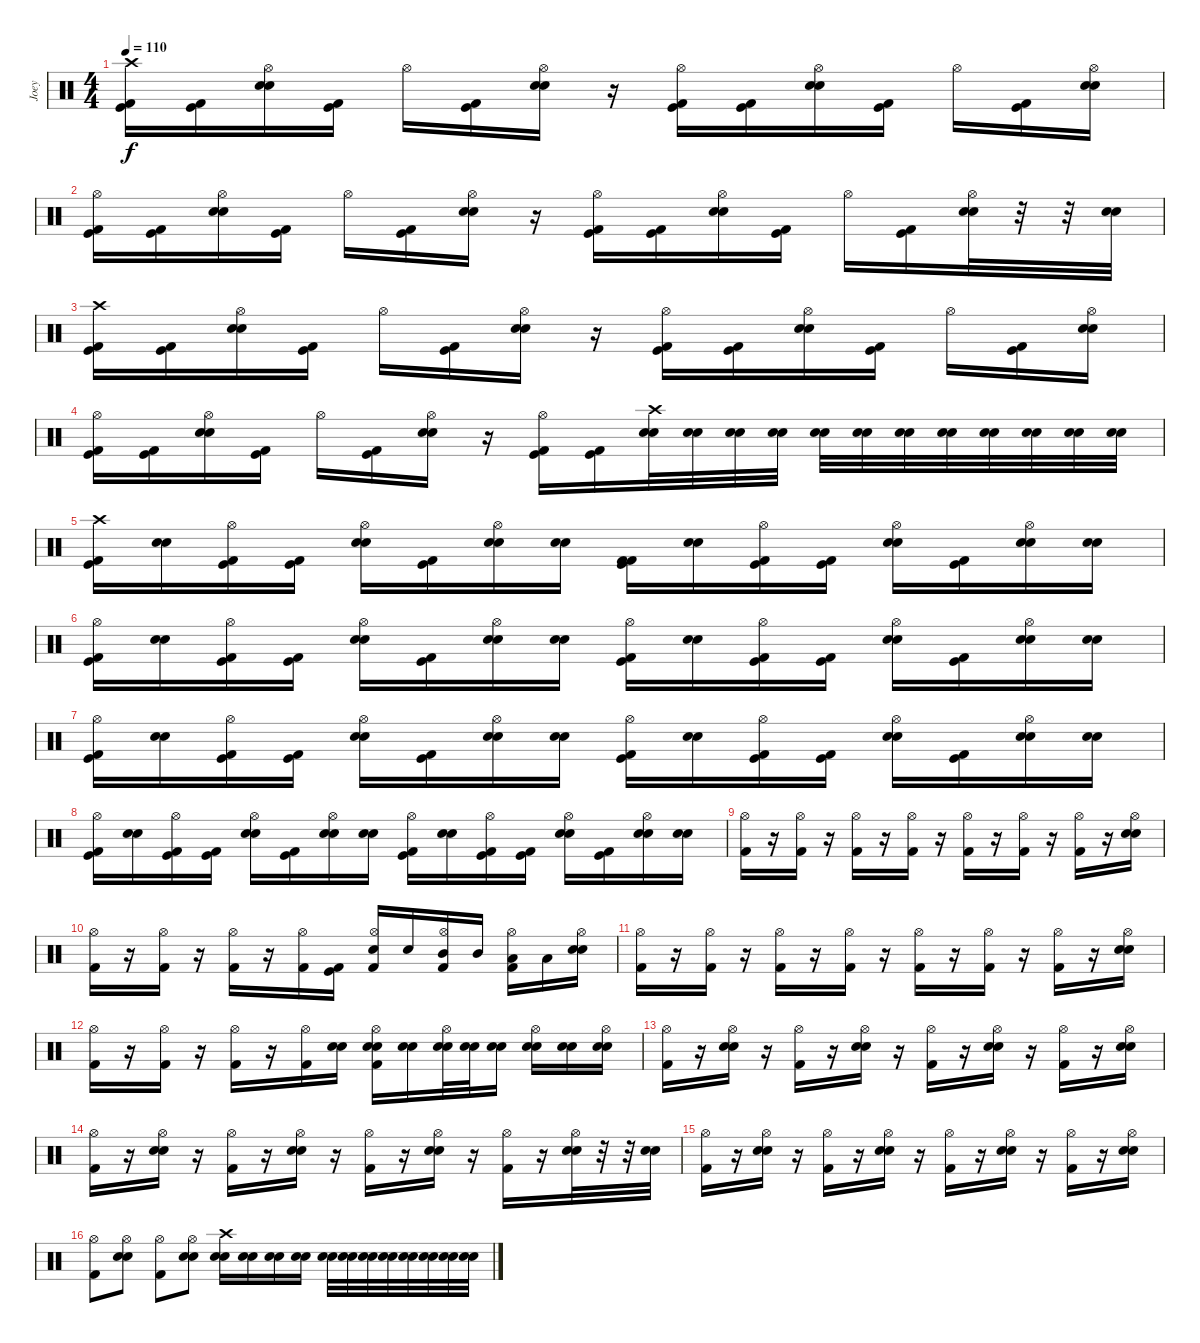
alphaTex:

\track ("Joey" "Joey") {instrument percussion}
\staff {score}
\articulation defaults
\ts (4 4)
\tempo 110
\clef neutral
\ks c
("Crash high (hit)" "Kick (hit)" "Kick (hit) 2").16{dy f} ("Kick (hit)" "Kick (hit) 2").16 ("Hi-Hat (open)" "Snare (hit) 2" "Electric Snare (hit)").16 ("Kick (hit)" "Kick (hit) 2").16 "Hi-Hat (open)".16 ("Kick (hit)" "Kick (hit) 2").16 ("Hi-Hat (open)" "Snare (hit) 2" "Electric Snare (hit)").16 r.16 ("Hi-Hat (open)" "Kick (hit)" "Kick (hit) 2").16 ("Kick (hit)" "Kick (hit) 2").16 ("Hi-Hat (open)" "Snare (hit) 2" "Electric Snare (hit)").16 ("Kick (hit)" "Kick (hit) 2").16 "Hi-Hat (open)".16 ("Kick (hit)" "Kick (hit) 2").16 ("Hi-Hat (open)" "Snare (hit) 2" "Electric Snare (hit)").16 |
("Hi-Hat (open)" "Kick (hit)" "Kick (hit) 2").16 ("Kick (hit)" "Kick (hit) 2").16 ("Hi-Hat (open)" "Snare (hit) 2" "Electric Snare (hit)").16 ("Kick (hit)" "Kick (hit) 2").16 "Hi-Hat (open)".16 ("Kick (hit)" "Kick (hit) 2").16 ("Hi-Hat (open)" "Snare (hit) 2" "Electric Snare (hit)").16 r.16 ("Hi-Hat (open)" "Kick (hit)" "Kick (hit) 2").16 ("Kick (hit)" "Kick (hit) 2").16 ("Hi-Hat (open)" "Snare (hit) 2" "Electric Snare (hit)").16 ("Kick (hit)" "Kick (hit) 2").16 "Hi-Hat (open)".16 ("Kick (hit)" "Kick (hit) 2").16 ("Hi-Hat (open)" "Snare (hit) 2" "Electric Snare (hit)").32 r.32 r.32 ("Snare (hit) 2" "Electric Snare (hit)").32 |
("Crash high (hit)" "Kick (hit)" "Kick (hit) 2").16 ("Kick (hit)" "Kick (hit) 2").16 ("Hi-Hat (open)" "Snare (hit) 2" "Electric Snare (hit)").16 ("Kick (hit)" "Kick (hit) 2").16 "Hi-Hat (open)".16 ("Kick (hit)" "Kick (hit) 2").16 ("Hi-Hat (open)" "Snare (hit) 2" "Electric Snare (hit)").16 r.16 ("Hi-Hat (open)" "Kick (hit)" "Kick (hit) 2").16 ("Kick (hit)" "Kick (hit) 2").16 ("Hi-Hat (open)" "Snare (hit) 2" "Electric Snare (hit)").16 ("Kick (hit)" "Kick (hit) 2").16 "Hi-Hat (open)".16 ("Kick (hit)" "Kick (hit) 2").16 ("Hi-Hat (open)" "Snare (hit) 2" "Electric Snare (hit)").16 |
("Hi-Hat (open)" "Kick (hit)" "Kick (hit) 2").16 ("Kick (hit)" "Kick (hit) 2").16 ("Hi-Hat (open)" "Snare (hit) 2" "Electric Snare (hit)").16 ("Kick (hit)" "Kick (hit) 2").16 "Hi-Hat (open)".16 ("Kick (hit)" "Kick (hit) 2").16 ("Hi-Hat (open)" "Snare (hit) 2" "Electric Snare (hit)").16 r.16 ("Hi-Hat (open)" "Kick (hit)" "Kick (hit) 2").16 ("Kick (hit)" "Kick (hit) 2").16 ("Crash high (hit)" "Snare (hit) 2" "Electric Snare (hit)").32 ("Snare (hit) 2" "Electric Snare (hit)").32 ("Snare (hit) 2" "Electric Snare (hit)").32 ("Snare (hit) 2" "Electric Snare (hit)").32 ("Snare (hit) 2" "Electric Snare (hit)").32 ("Snare (hit) 2" "Electric Snare (hit)").32 ("Snare (hit) 2" "Electric Snare (hit)").32 ("Snare (hit) 2" "Electric Snare (hit)").32 ("Snare (hit) 2" "Electric Snare (hit)").32 ("Snare (hit) 2" "Electric Snare (hit)").32 ("Snare (hit) 2" "Electric Snare (hit)").32 ("Snare (hit) 2" "Electric Snare (hit)").32 |
("Crash high (hit)" "Kick (hit)" "Kick (hit) 2").16 ("Snare (hit) 2" "Electric Snare (hit)").16 ("Hi-Hat (open)" "Kick (hit)" "Kick (hit) 2").16 ("Kick (hit)" "Kick (hit) 2").16 ("Hi-Hat (open)" "Snare (hit) 2" "Electric Snare (hit)").16 ("Kick (hit)" "Kick (hit) 2").16 ("Hi-Hat (open)" "Snare (hit) 2" "Electric Snare (hit)").16 ("Snare (hit) 2" "Electric Snare (hit)").16 ("Kick (hit) 2" "Kick (hit)" "Kick (hit) 2").16 ("Snare (hit) 2" "Electric Snare (hit)").16 ("Hi-Hat (open)" "Kick (hit)" "Kick (hit) 2").16 ("Kick (hit)" "Kick (hit) 2").16 ("Hi-Hat (open)" "Snare (hit) 2" "Electric Snare (hit)").16 ("Kick (hit)" "Kick (hit) 2").16 ("Hi-Hat (open)" "Snare (hit) 2" "Electric Snare (hit)").16 ("Snare (hit) 2" "Electric Snare (hit)").16 |
("Hi-Hat (open)" "Kick (hit)" "Kick (hit) 2").16 ("Snare (hit) 2" "Electric Snare (hit)").16 ("Hi-Hat (open)" "Kick (hit)" "Kick (hit) 2").16 ("Kick (hit)" "Kick (hit) 2").16 ("Hi-Hat (open)" "Snare (hit) 2" "Electric Snare (hit)").16 ("Kick (hit)" "Kick (hit) 2").16 ("Hi-Hat (open)" "Snare (hit) 2" "Electric Snare (hit)").16 ("Snare (hit) 2" "Electric Snare (hit)").16 ("Hi-Hat (open)" "Kick (hit)" "Kick (hit) 2").16 ("Snare (hit) 2" "Electric Snare (hit)").16 ("Hi-Hat (open)" "Kick (hit)" "Kick (hit) 2").16 ("Kick (hit)" "Kick (hit) 2").16 ("Hi-Hat (open)" "Snare (hit) 2" "Electric Snare (hit)").16 ("Kick (hit)" "Kick (hit) 2").16 ("Hi-Hat (open)" "Snare (hit) 2" "Electric Snare (hit)").16 ("Snare (hit) 2" "Electric Snare (hit)").16 |
("Hi-Hat (open)" "Kick (hit)" "Kick (hit) 2").16 ("Snare (hit) 2" "Electric Snare (hit)").16 ("Hi-Hat (open)" "Kick (hit)" "Kick (hit) 2").16 ("Kick (hit)" "Kick (hit) 2").16 ("Hi-Hat (open)" "Snare (hit) 2" "Electric Snare (hit)").16 ("Kick (hit)" "Kick (hit) 2").16 ("Hi-Hat (open)" "Snare (hit) 2" "Electric Snare (hit)").16 ("Snare (hit) 2" "Electric Snare (hit)").16 ("Hi-Hat (open)" "Kick (hit)" "Kick (hit) 2").16 ("Snare (hit) 2" "Electric Snare (hit)").16 ("Hi-Hat (open)" "Kick (hit)" "Kick (hit) 2").16 ("Kick (hit)" "Kick (hit) 2").16 ("Hi-Hat (open)" "Snare (hit) 2" "Electric Snare (hit)").16 ("Kick (hit)" "Kick (hit) 2").16 ("Hi-Hat (open)" "Snare (hit) 2" "Electric Snare (hit)").16 ("Snare (hit) 2" "Electric Snare (hit)").16 |
("Hi-Hat (open)" "Kick (hit)" "Kick (hit) 2").16 ("Snare (hit) 2" "Electric Snare (hit)").16 ("Hi-Hat (open)" "Kick (hit)" "Kick (hit) 2").16 ("Kick (hit)" "Kick (hit) 2").16 ("Hi-Hat (open)" "Snare (hit) 2" "Electric Snare (hit)").16 ("Kick (hit)" "Kick (hit) 2").16 ("Hi-Hat (open)" "Snare (hit) 2" "Electric Snare (hit)").16 ("Snare (hit) 2" "Electric Snare (hit)").16 ("Hi-Hat (open)" "Kick (hit)" "Kick (hit) 2").16 ("Snare (hit) 2" "Electric Snare (hit)").16 ("Hi-Hat (open)" "Kick (hit)" "Kick (hit) 2").16 ("Kick (hit)" "Kick (hit) 2").16 ("Hi-Hat (open)" "Snare (hit) 2" "Electric Snare (hit)").16 ("Kick (hit)" "Kick (hit) 2").16 ("Hi-Hat (open)" "Snare (hit) 2" "Electric Snare (hit)").16 ("Snare (hit) 2" "Electric Snare (hit)").16 |
("Hi-Hat (open)" "Kick (hit) 2").16 r.16 ("Hi-Hat (open)" "Kick (hit) 2").16 r.16 ("Hi-Hat (open)" "Kick (hit) 2").16 r.16 ("Hi-Hat (open)" "Kick (hit) 2").16 r.16 ("Hi-Hat (open)" "Kick (hit) 2").16 r.16 ("Hi-Hat (open)" "Kick (hit) 2").16 r.16 ("Hi-Hat (open)" "Kick (hit) 2").16 r.16 ("Hi-Hat (open)" "Snare (hit) 2" "Electric Snare (hit)").16 |
("Hi-Hat (open)" "Kick (hit) 2").16 r.16 ("Hi-Hat (open)" "Kick (hit) 2").16 r.16 ("Hi-Hat (open)" "Kick (hit) 2").16 r.16 ("Hi-Hat (open)" "Kick (hit) 2").16 ("Kick (hit)" "Kick (hit) 2").16 ("Hi-Hat (open)" "Electric Snare (hit)" "Kick (hit) 2").16 "Electric Snare (hit)".16 ("Hi-Hat (open)" "Mid Tom (hit)" "Kick (hit) 2").16 "Mid Tom (hit)".16 ("Hi-Hat (open)" "Low Tom (hit)" "Kick (hit) 2").16 "Low Tom (hit)".16 ("Hi-Hat (open)" "Snare (hit) 2" "Electric Snare (hit)").16 |
("Hi-Hat (open)" "Kick (hit) 2").16 r.16 ("Hi-Hat (open)" "Kick (hit) 2").16 r.16 ("Hi-Hat (open)" "Kick (hit) 2").16 r.16 ("Hi-Hat (open)" "Kick (hit) 2").16 r.16 ("Hi-Hat (open)" "Kick (hit) 2").16 r.16 ("Hi-Hat (open)" "Kick (hit) 2").16 r.16 ("Hi-Hat (open)" "Kick (hit) 2").16 r.16 ("Hi-Hat (open)" "Snare (hit) 2" "Electric Snare (hit)").16 |
("Hi-Hat (open)" "Kick (hit) 2").16 r.16 ("Hi-Hat (open)" "Kick (hit) 2").16 r.16 ("Hi-Hat (open)" "Kick (hit) 2").16 r.16 ("Hi-Hat (open)" "Kick (hit) 2").16 ("Electric Snare (hit)" "Snare (hit) 2").16 ("Hi-Hat (open)" "Electric Snare (hit)" "Snare (hit) 2" "Kick (hit) 2").16 ("Electric Snare (hit)" "Snare (hit) 2").16 ("Hi-Hat (open)" "Electric Snare (hit)" "Snare (hit) 2").32 ("Electric Snare (hit)" "Snare (hit) 2").32 ("Electric Snare (hit)" "Snare (hit) 2").16 ("Hi-Hat (open)" "Electric Snare (hit)" "Snare (hit) 2").16 ("Electric Snare (hit)" "Snare (hit) 2").16 ("Hi-Hat (open)" "Electric Snare (hit)" "Snare (hit) 2").16 |
("Hi-Hat (open)" "Kick (hit) 2").16 r.16 ("Hi-Hat (open)" "Snare (hit) 2" "Electric Snare (hit)").16 r.16 ("Hi-Hat (open)" "Kick (hit) 2").16 r.16 ("Hi-Hat (open)" "Snare (hit) 2" "Electric Snare (hit)").16 r.16 ("Hi-Hat (open)" "Kick (hit) 2").16 r.16 ("Hi-Hat (open)" "Snare (hit) 2" "Electric Snare (hit)").16 r.16 ("Hi-Hat (open)" "Kick (hit) 2").16 r.16 ("Hi-Hat (open)" "Snare (hit) 2" "Electric Snare (hit)").16 |
("Hi-Hat (open)" "Kick (hit) 2").16 r.16 ("Hi-Hat (open)" "Snare (hit) 2" "Electric Snare (hit)").16 r.16 ("Hi-Hat (open)" "Kick (hit) 2").16 r.16 ("Hi-Hat (open)" "Snare (hit) 2" "Electric Snare (hit)").16 r.16 ("Hi-Hat (open)" "Kick (hit) 2").16 r.16 ("Hi-Hat (open)" "Snare (hit) 2" "Electric Snare (hit)").16 r.16 ("Hi-Hat (open)" "Kick (hit) 2").16 r.16 ("Hi-Hat (open)" "Snare (hit) 2" "Electric Snare (hit)").32 r.32 r.32 ("Snare (hit) 2" "Electric Snare (hit)").32 |
("Hi-Hat (open)" "Kick (hit) 2").16 r.16 ("Hi-Hat (open)" "Snare (hit) 2" "Electric Snare (hit)").16 r.16 ("Hi-Hat (open)" "Kick (hit) 2").16 r.16 ("Hi-Hat (open)" "Snare (hit) 2" "Electric Snare (hit)").16 r.16 ("Hi-Hat (open)" "Kick (hit) 2").16 r.16 ("Hi-Hat (open)" "Snare (hit) 2" "Electric Snare (hit)").16 r.16 ("Hi-Hat (open)" "Kick (hit) 2").16 r.16 ("Hi-Hat (open)" "Snare (hit) 2" "Electric Snare (hit)").16 |
("Hi-Hat (open)" "Kick (hit) 2").8 ("Hi-Hat (open)" "Snare (hit) 2" "Electric Snare (hit)").8 ("Hi-Hat (open)" "Kick (hit) 2").8 ("Hi-Hat (open)" "Snare (hit) 2" "Electric Snare (hit)").8 ("Crash high (hit)" "Electric Snare (hit)" "Snare (hit) 2").16 ("Electric Snare (hit)" "Snare (hit) 2").16 ("Electric Snare (hit)" "Snare (hit) 2").16 ("Electric Snare (hit)" "Snare (hit) 2").16 ("Electric Snare (hit)" "Snare (hit) 2").32 ("Electric Snare (hit)" "Snare (hit) 2").32 ("Electric Snare (hit)" "Snare (hit) 2").32 ("Electric Snare (hit)" "Snare (hit) 2").32 ("Electric Snare (hit)" "Snare (hit) 2").32 ("Electric Snare (hit)" "Snare (hit) 2").32 ("Electric Snare (hit)" "Snare (hit) 2").32 ("Electric Snare (hit)" "Snare (hit) 2").32
